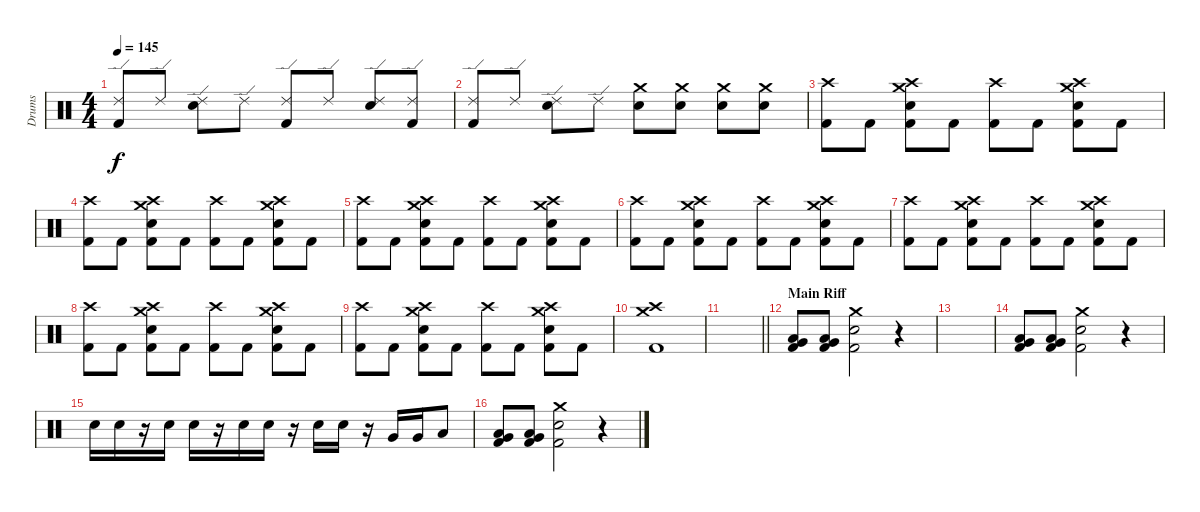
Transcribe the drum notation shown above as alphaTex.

\track ("Drums" "Drums") {instrument percussion}
\staff {score}
\articulation defaults
\ts (4 4)
\tempo 145
\clef neutral
\ks c
("Ride (edge) 2" "Kick (hit) 2").8{dy f} "Ride (edge) 2".8 ("Ride (edge) 2" "Snare (hit) 2").8 "Ride (edge) 2".8 ("Ride (edge) 2" "Kick (hit) 2").8 "Ride (edge) 2".8 ("Ride (edge) 2" "Snare (hit) 2").8 ("Ride (edge) 2" "Kick (hit) 2").8 |
("Ride (edge) 2" "Kick (hit) 2").8 "Ride (edge) 2".8 ("Ride (edge) 2" "Snare (hit) 2").8 "Ride (edge) 2".8 ("Crash medium (hit)" "Snare (hit) 2").8 ("Crash medium (hit)" "Snare (hit) 2").8 ("Crash medium (hit)" "Snare (hit) 2").8 ("Crash medium (hit)" "Snare (hit) 2").8 |
("Crash high (hit)" "Kick (hit) 2").8 "Kick (hit) 2".8 ("Crash high (hit)" "Crash medium (hit)" "Snare (hit) 2" "Kick (hit) 2").8 "Kick (hit) 2".8 ("Crash high (hit)" "Kick (hit) 2").8 "Kick (hit) 2".8 ("Crash high (hit)" "Crash medium (hit)" "Snare (hit) 2" "Kick (hit) 2").8 "Kick (hit) 2".8 |
("Crash high (hit)" "Kick (hit) 2").8 "Kick (hit) 2".8 ("Crash high (hit)" "Crash medium (hit)" "Snare (hit) 2" "Kick (hit) 2").8 "Kick (hit) 2".8 ("Crash high (hit)" "Kick (hit) 2").8 "Kick (hit) 2".8 ("Crash high (hit)" "Crash medium (hit)" "Snare (hit) 2" "Kick (hit) 2").8 "Kick (hit) 2".8 |
("Crash high (hit)" "Kick (hit) 2").8 "Kick (hit) 2".8 ("Crash high (hit)" "Crash medium (hit)" "Snare (hit) 2" "Kick (hit) 2").8 "Kick (hit) 2".8 ("Crash high (hit)" "Kick (hit) 2").8 "Kick (hit) 2".8 ("Crash high (hit)" "Crash medium (hit)" "Snare (hit) 2" "Kick (hit) 2").8 "Kick (hit) 2".8 |
("Crash high (hit)" "Kick (hit) 2").8 "Kick (hit) 2".8 ("Crash high (hit)" "Crash medium (hit)" "Snare (hit) 2" "Kick (hit) 2").8 "Kick (hit) 2".8 ("Crash high (hit)" "Kick (hit) 2").8 "Kick (hit) 2".8 ("Crash high (hit)" "Crash medium (hit)" "Snare (hit) 2" "Kick (hit) 2").8 "Kick (hit) 2".8 |
("Crash high (hit)" "Kick (hit) 2").8 "Kick (hit) 2".8 ("Crash high (hit)" "Crash medium (hit)" "Snare (hit) 2" "Kick (hit) 2").8 "Kick (hit) 2".8 ("Crash high (hit)" "Kick (hit) 2").8 "Kick (hit) 2".8 ("Crash high (hit)" "Crash medium (hit)" "Snare (hit) 2" "Kick (hit) 2").8 "Kick (hit) 2".8 |
("Crash high (hit)" "Kick (hit) 2").8 "Kick (hit) 2".8 ("Crash high (hit)" "Crash medium (hit)" "Snare (hit) 2" "Kick (hit) 2").8 "Kick (hit) 2".8 ("Crash high (hit)" "Kick (hit) 2").8 "Kick (hit) 2".8 ("Crash high (hit)" "Crash medium (hit)" "Snare (hit) 2" "Kick (hit) 2").8 "Kick (hit) 2".8 |
("Crash high (hit)" "Kick (hit) 2").8 "Kick (hit) 2".8 ("Crash high (hit)" "Crash medium (hit)" "Snare (hit) 2" "Kick (hit) 2").8 "Kick (hit) 2".8 ("Crash high (hit)" "Kick (hit) 2").8 "Kick (hit) 2".8 ("Crash high (hit)" "Crash medium (hit)" "Snare (hit) 2" "Kick (hit) 2").8 "Kick (hit) 2".8 |
("Crash high (hit)" "Crash medium (hit)" "Kick (hit) 2").1 |
\barLineRight lightlight
|
\section ("" "Main Riff")
("Low Tom (hit)" "Very Low Tom (hit)" "Kick (hit) 2").8 ("Low Tom (hit)" "Very Low Tom (hit)" "Kick (hit) 2").8 ("Crash medium (hit)" "Snare (hit) 2" "Kick (hit) 2").2 r.4 |
|
("Low Tom (hit)" "Very Low Tom (hit)" "Kick (hit) 2").8 ("Low Tom (hit)" "Very Low Tom (hit)" "Kick (hit) 2").8 ("Crash medium (hit)" "Snare (hit) 2" "Kick (hit) 2").2 r.4 |
"Snare (hit) 2".16 "Snare (hit) 2".16 r.16 "Snare (hit) 2".16 "Snare (hit) 2".16 r.16 "Snare (hit) 2".16 "Snare (hit) 2".16 r.16 "Snare (hit) 2".16 "Snare (hit) 2".16 r.16 "Very Low Tom (hit)".16 "Very Low Tom (hit)".16 "Low Floor Tom (hit)".8 |
("Low Tom (hit)" "Very Low Tom (hit)" "Kick (hit) 2").8 ("Low Tom (hit)" "Very Low Tom (hit)" "Kick (hit) 2").8 ("Crash medium (hit)" "Snare (hit) 2" "Kick (hit) 2").2 r.4
